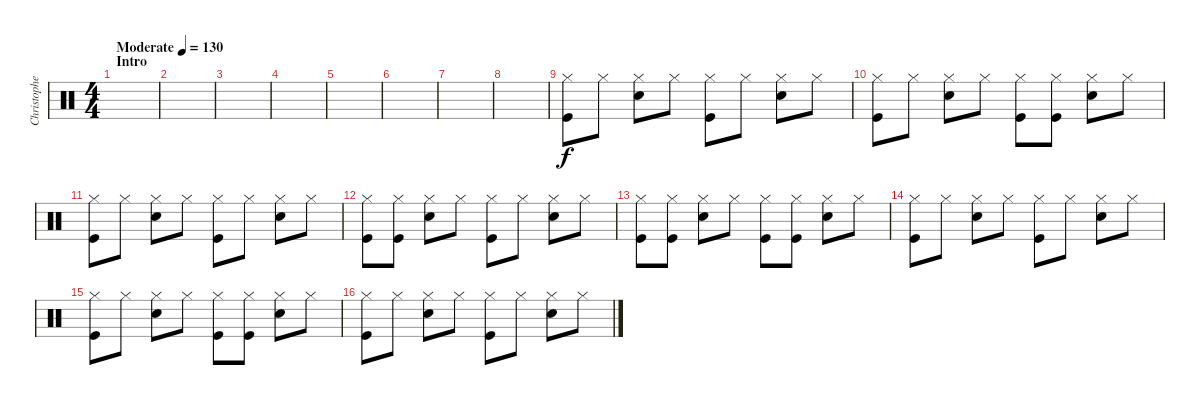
\track ("Christopher - Drums" "Christophe") {instrument percussion}
\staff {score}
\articulation defaults
\ts (4 4)
\section ("" "Intro")
\tempo (130 "Moderate")
\clef neutral
\ks c
|
|
|
|
|
|
|
|
("Hi-Hat (closed)" "Kick (hit)").8 "Hi-Hat (closed)".8 ("Hi-Hat (closed)" "Snare (hit) 2").8 "Hi-Hat (closed)".8 ("Hi-Hat (closed)" "Kick (hit)").8 "Hi-Hat (closed)".8 ("Hi-Hat (closed)" "Snare (hit) 2").8 "Hi-Hat (closed)".8 |
("Hi-Hat (closed)" "Kick (hit)").8 "Hi-Hat (closed)".8 ("Hi-Hat (closed)" "Snare (hit) 2").8 "Hi-Hat (closed)".8 ("Hi-Hat (closed)" "Kick (hit)").8 ("Hi-Hat (closed)" "Kick (hit)").8 ("Hi-Hat (closed)" "Snare (hit) 2").8 "Hi-Hat (closed)".8 |
("Hi-Hat (closed)" "Kick (hit)").8 "Hi-Hat (closed)".8 ("Hi-Hat (closed)" "Snare (hit) 2").8 "Hi-Hat (closed)".8 ("Hi-Hat (closed)" "Kick (hit)").8 "Hi-Hat (closed)".8 ("Hi-Hat (closed)" "Snare (hit) 2").8 "Hi-Hat (closed)".8 |
("Hi-Hat (closed)" "Kick (hit)").8 ("Hi-Hat (closed)" "Kick (hit)").8 ("Hi-Hat (closed)" "Snare (hit) 2").8 "Hi-Hat (closed)".8 ("Hi-Hat (closed)" "Kick (hit)").8 "Hi-Hat (closed)".8 ("Hi-Hat (closed)" "Snare (hit) 2").8 "Hi-Hat (closed)".8 |
("Hi-Hat (closed)" "Kick (hit)").8 ("Hi-Hat (closed)" "Kick (hit)").8 ("Hi-Hat (closed)" "Snare (hit) 2").8 "Hi-Hat (closed)".8 ("Hi-Hat (closed)" "Kick (hit)").8 ("Hi-Hat (closed)" "Kick (hit)").8 ("Hi-Hat (closed)" "Snare (hit) 2").8 "Hi-Hat (closed)".8 |
("Hi-Hat (closed)" "Kick (hit)").8 "Hi-Hat (closed)".8 ("Hi-Hat (closed)" "Snare (hit) 2").8 "Hi-Hat (closed)".8 ("Hi-Hat (closed)" "Kick (hit)").8 "Hi-Hat (closed)".8 ("Hi-Hat (closed)" "Snare (hit) 2").8 "Hi-Hat (closed)".8 |
("Hi-Hat (closed)" "Kick (hit)").8 "Hi-Hat (closed)".8 ("Hi-Hat (closed)" "Snare (hit) 2").8 "Hi-Hat (closed)".8 ("Hi-Hat (closed)" "Kick (hit)").8 ("Hi-Hat (closed)" "Kick (hit)").8 ("Hi-Hat (closed)" "Snare (hit) 2").8 "Hi-Hat (closed)".8 |
("Hi-Hat (closed)" "Kick (hit)").8 "Hi-Hat (closed)".8 ("Hi-Hat (closed)" "Snare (hit) 2").8 "Hi-Hat (closed)".8 ("Hi-Hat (closed)" "Kick (hit)").8 "Hi-Hat (closed)".8 ("Hi-Hat (closed)" "Snare (hit) 2").8 "Hi-Hat (closed)".8
